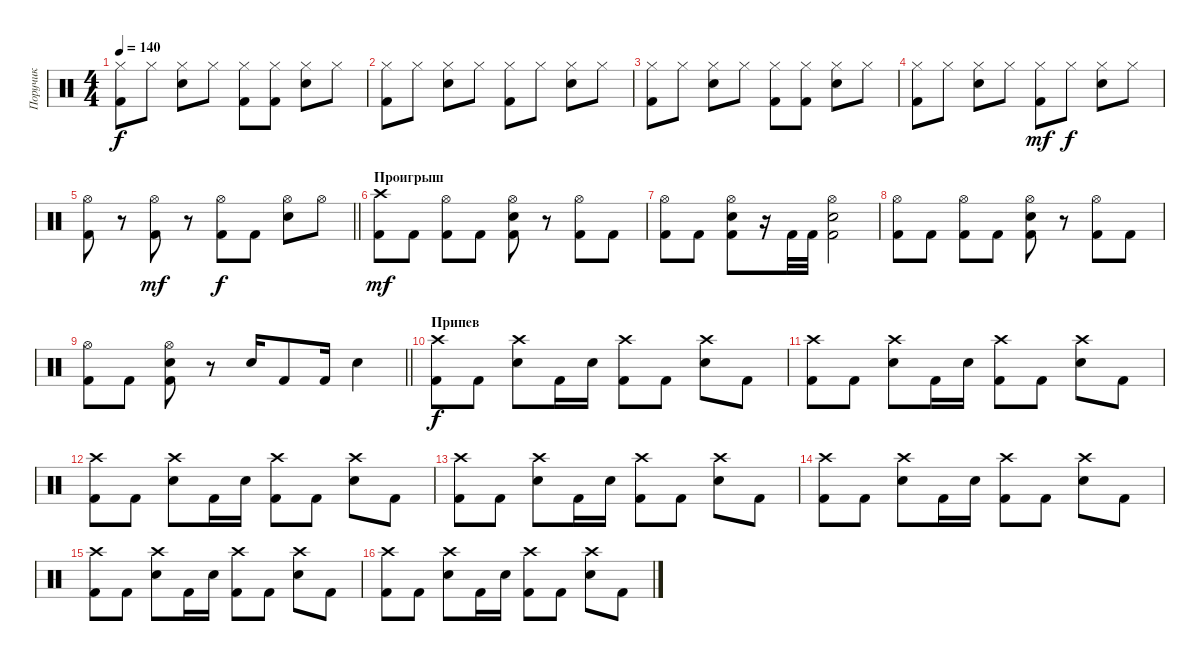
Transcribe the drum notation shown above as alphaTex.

\track ("Поручик" "Поручик") {instrument percussion}
\staff {score}
\articulation defaults
\ts (4 4)
\tempo 140
\clef neutral
\ks c
("Hi-Hat (closed)" "Kick (hit) 2").8{dy f} "Hi-Hat (closed)".8 ("Hi-Hat (closed)" "Electric Snare (hit)").8 "Hi-Hat (closed)".8 ("Hi-Hat (closed)" "Kick (hit) 2").8 ("Hi-Hat (closed)" "Kick (hit) 2").8 ("Hi-Hat (closed)" "Electric Snare (hit)").8 "Hi-Hat (closed)".8 |
("Hi-Hat (closed)" "Kick (hit) 2").8 "Hi-Hat (closed)".8 ("Hi-Hat (closed)" "Electric Snare (hit)").8 "Hi-Hat (closed)".8 ("Hi-Hat (closed)" "Kick (hit) 2").8 "Hi-Hat (closed)".8 ("Hi-Hat (closed)" "Electric Snare (hit)").8 "Hi-Hat (closed)".8 |
("Hi-Hat (closed)" "Kick (hit) 2").8 "Hi-Hat (closed)".8 ("Hi-Hat (closed)" "Electric Snare (hit)").8 "Hi-Hat (closed)".8 ("Hi-Hat (closed)" "Kick (hit) 2").8 ("Hi-Hat (closed)" "Kick (hit) 2").8 ("Hi-Hat (closed)" "Electric Snare (hit)").8 "Hi-Hat (closed)".8 |
("Hi-Hat (closed)" "Kick (hit) 2").8 "Hi-Hat (closed)".8 ("Hi-Hat (closed)" "Electric Snare (hit)").8 "Hi-Hat (closed)".8 ("Hi-Hat (closed)" "Kick (hit) 2").8{dy mf} "Hi-Hat (closed)".8{dy f} ("Hi-Hat (closed)" "Electric Snare (hit)").8 "Hi-Hat (closed)".8 |
\barLineRight lightlight
("Hi-Hat (open)" "Kick (hit) 2").8 r.8 ("Hi-Hat (open)" "Kick (hit) 2").8{dy mf} r.8 ("Hi-Hat (open)" "Kick (hit) 2").8{dy f} "Kick (hit) 2".8 ("Hi-Hat (open)" "Electric Snare (hit)").8 "Hi-Hat (open)".8 |
\section ("" "Проигрыш")
("Crash high (hit)" "Kick (hit) 2").8{dy mf} "Kick (hit) 2".8 ("Hi-Hat (open)" "Kick (hit) 2").8 "Kick (hit) 2".8 ("Hi-Hat (open)" "Electric Snare (hit)" "Kick (hit) 2").8 r.8 ("Hi-Hat (open)" "Kick (hit) 2").8 "Kick (hit) 2".8 |
("Hi-Hat (open)" "Kick (hit) 2").8 "Kick (hit) 2".8 ("Hi-Hat (open)" "Electric Snare (hit)" "Kick (hit) 2").8 r.16 "Kick (hit) 2".32 "Kick (hit) 2".32 ("Hi-Hat (open)" "Electric Snare (hit)" "Kick (hit) 2").2 |
("Hi-Hat (open)" "Kick (hit) 2").8 "Kick (hit) 2".8 ("Hi-Hat (open)" "Kick (hit) 2").8 "Kick (hit) 2".8 ("Hi-Hat (open)" "Electric Snare (hit)" "Kick (hit) 2").8 r.8 ("Hi-Hat (open)" "Kick (hit) 2").8 "Kick (hit) 2".8 |
\barLineRight lightlight
("Hi-Hat (open)" "Kick (hit) 2").8 "Kick (hit) 2".8 ("Hi-Hat (open)" "Electric Snare (hit)" "Kick (hit) 2").8 r.8 "Electric Snare (hit)".16 "Kick (hit) 2".8 "Kick (hit) 2".16 "Electric Snare (hit)".4 |
\section ("" "Припев")
("Crash high (hit)" "Kick (hit) 2").8{dy f} "Kick (hit) 2".8 ("Crash high (hit)" "Electric Snare (hit)").8 "Kick (hit) 2".16 "Electric Snare (hit)".16 ("Crash high (hit)" "Kick (hit) 2").8 "Kick (hit) 2".8 ("Crash high (hit)" "Electric Snare (hit)").8 "Kick (hit) 2".8 |
("Crash high (hit)" "Kick (hit) 2").8 "Kick (hit) 2".8 ("Crash high (hit)" "Electric Snare (hit)").8 "Kick (hit) 2".16 "Electric Snare (hit)".16 ("Crash high (hit)" "Kick (hit) 2").8 "Kick (hit) 2".8 ("Crash high (hit)" "Electric Snare (hit)").8 "Kick (hit) 2".8 |
("Crash high (hit)" "Kick (hit) 2").8 "Kick (hit) 2".8 ("Crash high (hit)" "Electric Snare (hit)").8 "Kick (hit) 2".16 "Electric Snare (hit)".16 ("Crash high (hit)" "Kick (hit) 2").8 "Kick (hit) 2".8 ("Crash high (hit)" "Electric Snare (hit)").8 "Kick (hit) 2".8 |
("Crash high (hit)" "Kick (hit) 2").8 "Kick (hit) 2".8 ("Crash high (hit)" "Electric Snare (hit)").8 "Kick (hit) 2".16 "Electric Snare (hit)".16 ("Crash high (hit)" "Kick (hit) 2").8 "Kick (hit) 2".8 ("Crash high (hit)" "Electric Snare (hit)").8 "Kick (hit) 2".8 |
("Crash high (hit)" "Kick (hit) 2").8 "Kick (hit) 2".8 ("Crash high (hit)" "Electric Snare (hit)").8 "Kick (hit) 2".16 "Electric Snare (hit)".16 ("Crash high (hit)" "Kick (hit) 2").8 "Kick (hit) 2".8 ("Crash high (hit)" "Electric Snare (hit)").8 "Kick (hit) 2".8 |
("Crash high (hit)" "Kick (hit) 2").8 "Kick (hit) 2".8 ("Crash high (hit)" "Electric Snare (hit)").8 "Kick (hit) 2".16 "Electric Snare (hit)".16 ("Crash high (hit)" "Kick (hit) 2").8 "Kick (hit) 2".8 ("Crash high (hit)" "Electric Snare (hit)").8 "Kick (hit) 2".8 |
("Crash high (hit)" "Kick (hit) 2").8 "Kick (hit) 2".8 ("Crash high (hit)" "Electric Snare (hit)").8 "Kick (hit) 2".16 "Electric Snare (hit)".16 ("Crash high (hit)" "Kick (hit) 2").8 "Kick (hit) 2".8 ("Crash high (hit)" "Electric Snare (hit)").8 "Kick (hit) 2".8
